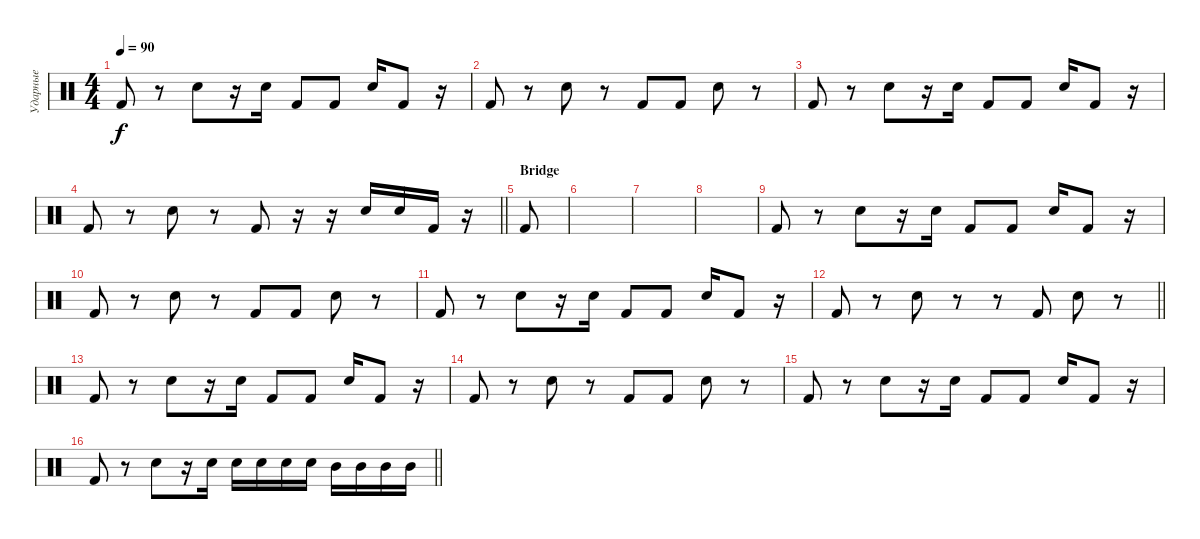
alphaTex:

\track ("Ударные" "Ударные") {instrument percussion}
\staff {score}
\articulation defaults
\ts (4 4)
\tempo 90
\clef neutral
\ks c "Kick (hit) 2".8{dy f}
r.8 "Snare (hit) 2".8 r.16 "Snare (hit) 2".16 "Kick (hit) 2".8 "Kick (hit) 2".8 "Snare (hit) 2".16 "Kick (hit) 2".8 r.16 |
"Kick (hit) 2".8 r.8 "Snare (hit) 2".8 r.8 "Kick (hit) 2".8 "Kick (hit) 2".8 "Snare (hit) 2".8 r.8 |
"Kick (hit) 2".8 r.8 "Snare (hit) 2".8 r.16 "Snare (hit) 2".16 "Kick (hit) 2".8 "Kick (hit) 2".8 "Snare (hit) 2".16 "Kick (hit) 2".8 r.16 |
\barLineRight lightlight "Kick (hit) 2".8
r.8 "Snare (hit) 2".8 r.8 "Kick (hit) 2".8 r.16 r.16 "Snare (hit) 2".16 "Snare (hit) 2".16 "Kick (hit) 2".16 r.16 |
\section ("" "Bridge")
"Kick (hit) 2".8 |
|
|
|
"Kick (hit) 2".8 r.8 "Snare (hit) 2".8 r.16 "Snare (hit) 2".16 "Kick (hit) 2".8 "Kick (hit) 2".8 "Snare (hit) 2".16 "Kick (hit) 2".8 r.16 |
"Kick (hit) 2".8 r.8 "Snare (hit) 2".8 r.8 "Kick (hit) 2".8 "Kick (hit) 2".8 "Snare (hit) 2".8 r.8 |
"Kick (hit) 2".8 r.8 "Snare (hit) 2".8 r.16 "Snare (hit) 2".16 "Kick (hit) 2".8 "Kick (hit) 2".8 "Snare (hit) 2".16 "Kick (hit) 2".8 r.16 |
\barLineRight lightlight "Kick (hit) 2".8
r.8 "Snare (hit) 2".8 r.8 r.8 "Kick (hit) 2".8 "Snare (hit) 2".8 r.8 |
"Kick (hit) 2".8 r.8 "Snare (hit) 2".8 r.16 "Snare (hit) 2".16 "Kick (hit) 2".8 "Kick (hit) 2".8 "Snare (hit) 2".16 "Kick (hit) 2".8 r.16 |
"Kick (hit) 2".8 r.8 "Snare (hit) 2".8 r.8 "Kick (hit) 2".8 "Kick (hit) 2".8 "Snare (hit) 2".8 r.8 |
"Kick (hit) 2".8 r.8 "Snare (hit) 2".8 r.16 "Snare (hit) 2".16 "Kick (hit) 2".8 "Kick (hit) 2".8 "Snare (hit) 2".16 "Kick (hit) 2".8 r.16 |
\barLineRight lightlight "Kick (hit) 2".8
r.8 "Snare (hit) 2".8 r.16 "Snare (hit) 2".16 "Snare (hit) 2".16 "Snare (hit) 2".16 "Snare (hit) 2".16 "Snare (hit) 2".16 "Mid Tom (hit)".16 "Mid Tom (hit)".16 "Mid Tom (hit)".16 "Mid Tom (hit)".16
